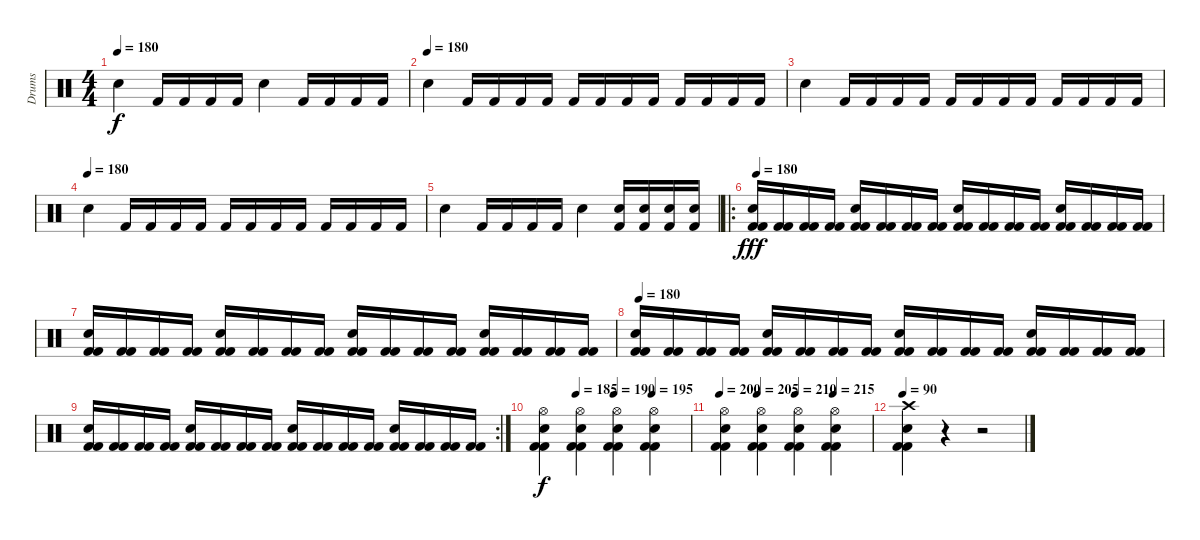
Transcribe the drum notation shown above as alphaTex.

\track ("Drums" "Drums") {instrument percussion}
\staff {score}
\articulation defaults
\ts (4 4)
\tempo 180
\clef neutral
\ks c "Electric Snare (hit)".4{dy f} "Kick (hit) 2".16 "Kick (hit) 2".16 "Kick (hit) 2".16 "Kick (hit) 2".16 "Electric Snare (hit)".4 "Kick (hit) 2".16 "Kick (hit) 2".16 "Kick (hit) 2".16 "Kick (hit) 2".16
|
\tempo (180)
"Electric Snare (hit)".4 "Kick (hit) 2".16 "Kick (hit) 2".16 "Kick (hit) 2".16 "Kick (hit) 2".16 "Kick (hit) 2".16 "Kick (hit) 2".16 "Kick (hit) 2".16 "Kick (hit) 2".16 "Kick (hit) 2".16 "Kick (hit) 2".16 "Kick (hit) 2".16 "Kick (hit) 2".16 |
"Electric Snare (hit)".4 "Kick (hit) 2".16 "Kick (hit) 2".16 "Kick (hit) 2".16 "Kick (hit) 2".16 "Kick (hit) 2".16 "Kick (hit) 2".16 "Kick (hit) 2".16 "Kick (hit) 2".16 "Kick (hit) 2".16 "Kick (hit) 2".16 "Kick (hit) 2".16 "Kick (hit) 2".16 |
\tempo (180)
"Electric Snare (hit)".4 "Kick (hit) 2".16 "Kick (hit) 2".16 "Kick (hit) 2".16 "Kick (hit) 2".16 "Kick (hit) 2".16 "Kick (hit) 2".16 "Kick (hit) 2".16 "Kick (hit) 2".16 "Kick (hit) 2".16 "Kick (hit) 2".16 "Kick (hit) 2".16 "Kick (hit) 2".16 |
"Electric Snare (hit)".4 "Kick (hit) 2".16 "Kick (hit) 2".16 "Kick (hit) 2".16 "Kick (hit) 2".16 "Electric Snare (hit)".4 ("Electric Snare (hit)" "Kick (hit) 2").16 ("Electric Snare (hit)" "Kick (hit) 2").16 ("Electric Snare (hit)" "Kick (hit) 2").16 ("Electric Snare (hit)" "Kick (hit) 2").16 |
\ro
\tempo 180
("Electric Snare (hit)" "Kick (hit) 2" "Kick (hit) 2").16{dy fff} ("Kick (hit) 2" "Kick (hit) 2").16 ("Kick (hit) 2" "Kick (hit) 2").16 ("Kick (hit) 2" "Kick (hit) 2").16 ("Electric Snare (hit)" "Kick (hit) 2" "Kick (hit) 2").16 ("Kick (hit) 2" "Kick (hit) 2").16 ("Kick (hit) 2" "Kick (hit) 2").16 ("Kick (hit) 2" "Kick (hit) 2").16 ("Electric Snare (hit)" "Kick (hit) 2" "Kick (hit) 2").16 ("Kick (hit) 2" "Kick (hit) 2").16 ("Kick (hit) 2" "Kick (hit) 2").16 ("Kick (hit) 2" "Kick (hit) 2").16 ("Electric Snare (hit)" "Kick (hit) 2" "Kick (hit) 2").16 ("Kick (hit) 2" "Kick (hit) 2").16 ("Kick (hit) 2" "Kick (hit) 2").16 ("Kick (hit) 2" "Kick (hit) 2").16 |
("Electric Snare (hit)" "Kick (hit) 2" "Kick (hit) 2").16 ("Kick (hit) 2" "Kick (hit) 2").16 ("Kick (hit) 2" "Kick (hit) 2").16 ("Kick (hit) 2" "Kick (hit) 2").16 ("Electric Snare (hit)" "Kick (hit) 2" "Kick (hit) 2").16 ("Kick (hit) 2" "Kick (hit) 2").16 ("Kick (hit) 2" "Kick (hit) 2").16 ("Kick (hit) 2" "Kick (hit) 2").16 ("Electric Snare (hit)" "Kick (hit) 2" "Kick (hit) 2").16 ("Kick (hit) 2" "Kick (hit) 2").16 ("Kick (hit) 2" "Kick (hit) 2").16 ("Kick (hit) 2" "Kick (hit) 2").16 ("Electric Snare (hit)" "Kick (hit) 2" "Kick (hit) 2").16 ("Kick (hit) 2" "Kick (hit) 2").16 ("Kick (hit) 2" "Kick (hit) 2").16 ("Kick (hit) 2" "Kick (hit) 2").16 |
\tempo 180
("Electric Snare (hit)" "Kick (hit) 2" "Kick (hit) 2").16 ("Kick (hit) 2" "Kick (hit) 2").16 ("Kick (hit) 2" "Kick (hit) 2").16 ("Kick (hit) 2" "Kick (hit) 2").16 ("Electric Snare (hit)" "Kick (hit) 2" "Kick (hit) 2").16 ("Kick (hit) 2" "Kick (hit) 2").16 ("Kick (hit) 2" "Kick (hit) 2").16 ("Kick (hit) 2" "Kick (hit) 2").16 ("Electric Snare (hit)" "Kick (hit) 2" "Kick (hit) 2").16 ("Kick (hit) 2" "Kick (hit) 2").16 ("Kick (hit) 2" "Kick (hit) 2").16 ("Kick (hit) 2" "Kick (hit) 2").16 ("Electric Snare (hit)" "Kick (hit) 2" "Kick (hit) 2").16 ("Kick (hit) 2" "Kick (hit) 2").16 ("Kick (hit) 2" "Kick (hit) 2").16 ("Kick (hit) 2" "Kick (hit) 2").16 |
\rc 2
("Electric Snare (hit)" "Kick (hit) 2" "Kick (hit) 2").16 ("Kick (hit) 2" "Kick (hit) 2").16 ("Kick (hit) 2" "Kick (hit) 2").16 ("Kick (hit) 2" "Kick (hit) 2").16 ("Electric Snare (hit)" "Kick (hit) 2" "Kick (hit) 2").16 ("Kick (hit) 2" "Kick (hit) 2").16 ("Kick (hit) 2" "Kick (hit) 2").16 ("Kick (hit) 2" "Kick (hit) 2").16 ("Electric Snare (hit)" "Kick (hit) 2" "Kick (hit) 2").16 ("Kick (hit) 2" "Kick (hit) 2").16 ("Kick (hit) 2" "Kick (hit) 2").16 ("Kick (hit) 2" "Kick (hit) 2").16 ("Electric Snare (hit)" "Kick (hit) 2" "Kick (hit) 2").16 ("Kick (hit) 2" "Kick (hit) 2").16 ("Kick (hit) 2" "Kick (hit) 2").16 ("Kick (hit) 2" "Kick (hit) 2").16 |
\tempo (185 0.25)
\tempo (190 0.5)
\tempo (195 0.75)
("Hi-Hat (open)" "Electric Snare (hit)" "Kick (hit) 2" "Kick (hit) 2").4{dy f} ("Hi-Hat (open)" "Electric Snare (hit)" "Kick (hit) 2" "Kick (hit) 2").4 ("Hi-Hat (open)" "Electric Snare (hit)" "Kick (hit) 2" "Kick (hit) 2").4 ("Hi-Hat (open)" "Electric Snare (hit)" "Kick (hit) 2" "Kick (hit) 2").4 |
\tempo 200
\tempo (205 0.25)
\tempo (210 0.5)
\tempo (215 0.75)
("Hi-Hat (open)" "Electric Snare (hit)" "Kick (hit) 2" "Kick (hit) 2").4 ("Hi-Hat (open)" "Electric Snare (hit)" "Kick (hit) 2" "Kick (hit) 2").4 ("Hi-Hat (open)" "Electric Snare (hit)" "Kick (hit) 2" "Kick (hit) 2").4 ("Hi-Hat (open)" "Electric Snare (hit)" "Kick (hit) 2" "Kick (hit) 2").4 |
\tempo 90
("Crash high (hit)" "Electric Snare (hit)" "Kick (hit) 2" "Kick (hit) 2").4 r.4 r.2
